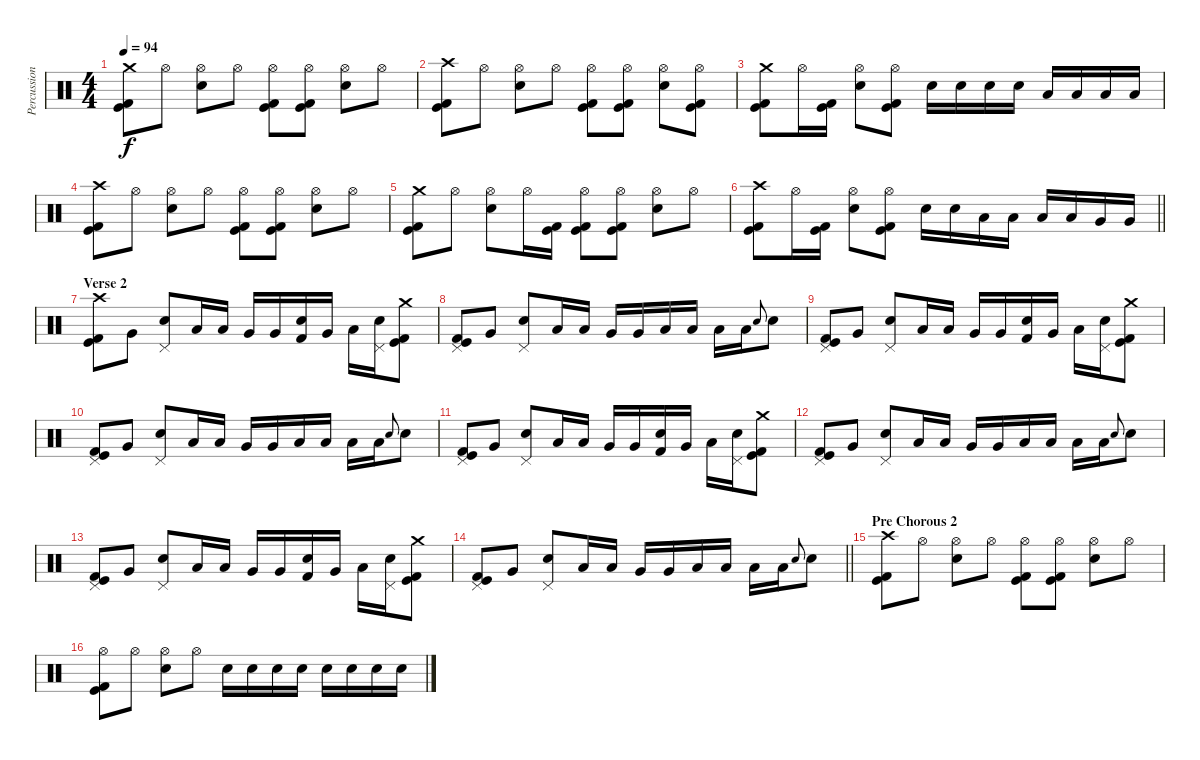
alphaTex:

\track ("Percussion" "Percussion") {instrument percussion}
\staff {score}
\articulation defaults
\ts (4 4)
\tempo 94
\clef neutral
\ks c
("Crash medium (hit)" "Kick (hit)" "Kick (hit) 2").8{dy f} "Hi-Hat (open)".8 ("Hi-Hat (open)" "Electric Snare (hit)").8 "Hi-Hat (open)".8 ("Hi-Hat (open)" "Kick (hit)" "Kick (hit) 2").8 ("Hi-Hat (open)" "Kick (hit)" "Kick (hit) 2").8 ("Hi-Hat (open)" "Electric Snare (hit)").8 "Hi-Hat (open)".8 |
("Crash high (hit)" "Kick (hit)" "Kick (hit) 2").8 "Hi-Hat (open)".8 ("Hi-Hat (open)" "Electric Snare (hit)").8 "Hi-Hat (open)".8 ("Hi-Hat (open)" "Kick (hit)" "Kick (hit) 2").8 ("Hi-Hat (open)" "Kick (hit)" "Kick (hit) 2").8 ("Hi-Hat (open)" "Electric Snare (hit)").8 ("Hi-Hat (open)" "Kick (hit)" "Kick (hit) 2").8 |
("Crash medium (hit)" "Kick (hit)" "Kick (hit) 2").8 "Hi-Hat (open)".16 ("Kick (hit)" "Kick (hit) 2").16 ("Hi-Hat (open)" "Electric Snare (hit)").8 ("Hi-Hat (open)" "Kick (hit)" "Kick (hit) 2").8 "Electric Snare (hit)".16 "Electric Snare (hit)".16 "Electric Snare (hit)".16 "Electric Snare (hit)".16 "Low Tom (hit)".16 "Low Tom (hit)".16 "Low Tom (hit)".16 "Low Tom (hit)".16 |
("Crash high (hit)" "Kick (hit)" "Kick (hit) 2").8 "Hi-Hat (open)".8 ("Hi-Hat (open)" "Electric Snare (hit)").8 "Hi-Hat (open)".8 ("Hi-Hat (open)" "Kick (hit)" "Kick (hit) 2").8 ("Hi-Hat (open)" "Kick (hit)" "Kick (hit) 2").8 ("Hi-Hat (open)" "Electric Snare (hit)").8 "Hi-Hat (open)".8 |
("Crash medium (hit)" "Kick (hit)" "Kick (hit) 2").8 "Hi-Hat (open)".8 ("Hi-Hat (open)" "Electric Snare (hit)").8 "Hi-Hat (open)".16 ("Kick (hit)" "Kick (hit) 2").16 ("Hi-Hat (open)" "Kick (hit)" "Kick (hit) 2").8 ("Hi-Hat (open)" "Kick (hit)" "Kick (hit) 2").8 ("Hi-Hat (open)" "Electric Snare (hit)").8 "Hi-Hat (open)".8 |
\barLineRight lightlight
("Crash high (hit)" "Kick (hit)" "Kick (hit) 2").8 "Hi-Hat (open)".16 ("Kick (hit)" "Kick (hit) 2").16 ("Hi-Hat (open)" "Electric Snare (hit)").8 ("Hi-Hat (open)" "Kick (hit)" "Kick (hit) 2").8 "Electric Snare (hit)".16 "Electric Snare (hit)".16 "Low Tom (hit)".16 "Low Tom (hit)".16 "Low Tom (hit)".16 "Low Tom (hit)".16 "Very Low Tom (hit)".16 "Very Low Tom (hit)".16 |
\section ("" "Verse 2")
("Crash high (hit)" "Kick (hit)" "Kick (hit) 2").8 "Very Low Tom (hit)".8 ("Pedal Hi-Hat (hit)" "Electric Snare (hit)").8 "Low Tom (hit)".16 "Low Tom (hit)".16 "Very Low Tom (hit)".16 "Very Low Tom (hit)".16 ("Electric Snare (hit)" "Kick (hit) 2").16 "Very Low Tom (hit)".16 "Low Floor Tom (hit)".16 ("Pedal Hi-Hat (hit)" "Electric Snare (hit)").16 ("Crash medium (hit)" "Kick (hit)" "Kick (hit) 2").8 |
("Pedal Hi-Hat (hit)" "Kick (hit)" "Kick (hit) 2").8 "Very Low Tom (hit)".8 ("Pedal Hi-Hat (hit)" "Electric Snare (hit)").8 "Low Tom (hit)".16 "Low Tom (hit)".16 "Very Low Tom (hit)".16 "Very Low Tom (hit)".16 "Low Floor Tom (hit)".16 "Low Floor Tom (hit)".16 "Low Tom (hit)".16 "Low Tom (hit)".16 "Electric Snare (hit)".8{gr onbeat} "Electric Snare (hit)".8 |
("Pedal Hi-Hat (hit)" "Kick (hit)" "Kick (hit) 2").8 "Very Low Tom (hit)".8 ("Pedal Hi-Hat (hit)" "Electric Snare (hit)").8 "Low Tom (hit)".16 "Low Tom (hit)".16 "Very Low Tom (hit)".16 "Very Low Tom (hit)".16 ("Electric Snare (hit)" "Kick (hit) 2").16 "Very Low Tom (hit)".16 "Low Floor Tom (hit)".16 ("Pedal Hi-Hat (hit)" "Electric Snare (hit)").16 ("Crash medium (hit)" "Kick (hit)" "Kick (hit) 2").8 |
("Pedal Hi-Hat (hit)" "Kick (hit)" "Kick (hit) 2").8 "Very Low Tom (hit)".8 ("Pedal Hi-Hat (hit)" "Electric Snare (hit)").8 "Low Tom (hit)".16 "Low Tom (hit)".16 "Very Low Tom (hit)".16 "Very Low Tom (hit)".16 "Low Floor Tom (hit)".16 "Low Floor Tom (hit)".16 "Low Tom (hit)".16 "Low Tom (hit)".16 "Electric Snare (hit)".8{gr onbeat} "Electric Snare (hit)".8 |
("Pedal Hi-Hat (hit)" "Kick (hit)" "Kick (hit) 2").8 "Very Low Tom (hit)".8 ("Pedal Hi-Hat (hit)" "Electric Snare (hit)").8 "Low Tom (hit)".16 "Low Tom (hit)".16 "Very Low Tom (hit)".16 "Very Low Tom (hit)".16 ("Electric Snare (hit)" "Kick (hit) 2").16 "Very Low Tom (hit)".16 "Low Floor Tom (hit)".16 ("Pedal Hi-Hat (hit)" "Electric Snare (hit)").16 ("Crash medium (hit)" "Kick (hit)" "Kick (hit) 2").8 |
("Pedal Hi-Hat (hit)" "Kick (hit)" "Kick (hit) 2").8 "Very Low Tom (hit)".8 ("Pedal Hi-Hat (hit)" "Electric Snare (hit)").8 "Low Tom (hit)".16 "Low Tom (hit)".16 "Very Low Tom (hit)".16 "Very Low Tom (hit)".16 "Low Floor Tom (hit)".16 "Low Floor Tom (hit)".16 "Low Tom (hit)".16 "Low Tom (hit)".16 "Electric Snare (hit)".8{gr onbeat} "Electric Snare (hit)".8 |
("Pedal Hi-Hat (hit)" "Kick (hit)" "Kick (hit) 2").8 "Very Low Tom (hit)".8 ("Pedal Hi-Hat (hit)" "Electric Snare (hit)").8 "Low Tom (hit)".16 "Low Tom (hit)".16 "Very Low Tom (hit)".16 "Very Low Tom (hit)".16 ("Electric Snare (hit)" "Kick (hit) 2").16 "Very Low Tom (hit)".16 "Low Floor Tom (hit)".16 ("Pedal Hi-Hat (hit)" "Electric Snare (hit)").16 ("Crash medium (hit)" "Kick (hit)" "Kick (hit) 2").8 |
\barLineRight lightlight
("Pedal Hi-Hat (hit)" "Kick (hit)" "Kick (hit) 2").8 "Very Low Tom (hit)".8 ("Pedal Hi-Hat (hit)" "Electric Snare (hit)").8 "Low Tom (hit)".16 "Low Tom (hit)".16 "Very Low Tom (hit)".16 "Very Low Tom (hit)".16 "Low Floor Tom (hit)".16 "Low Floor Tom (hit)".16 "Low Tom (hit)".16 "Low Tom (hit)".16 "Electric Snare (hit)".8{gr onbeat} "Electric Snare (hit)".8 |
\section ("" "Pre Chorous 2")
("Crash high (hit)" "Kick (hit)" "Kick (hit) 2").8 "Hi-Hat (open)".8 ("Hi-Hat (open)" "Electric Snare (hit)").8 "Hi-Hat (open)".8 ("Hi-Hat (open)" "Kick (hit)" "Kick (hit) 2").8 ("Hi-Hat (open)" "Kick (hit)" "Kick (hit) 2").8 ("Hi-Hat (open)" "Electric Snare (hit)").8 "Hi-Hat (open)".8 |
("Hi-Hat (open)" "Kick (hit)" "Kick (hit) 2").8 "Hi-Hat (open)".8 ("Hi-Hat (open)" "Electric Snare (hit)").8 "Hi-Hat (open)".8 "Electric Snare (hit)".16 "Electric Snare (hit)".16 "Electric Snare (hit)".16 "Electric Snare (hit)".16 "Electric Snare (hit)".16 "Electric Snare (hit)".16 "Electric Snare (hit)".16 "Electric Snare (hit)".16
